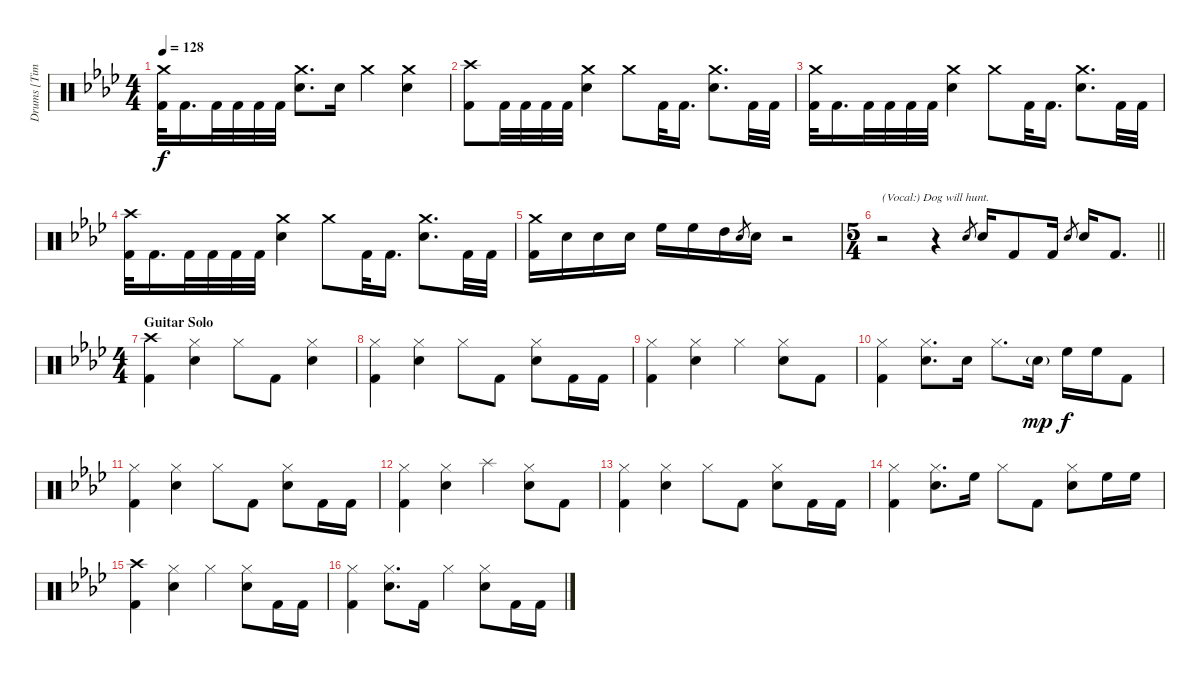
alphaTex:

\track ("Drums [Tim Alexander]" "Drums [Tim") {instrument percussion}
\staff {score}
\articulation defaults
\ts (4 4)
\tempo 128
\clef neutral
\ks ab
("Crash medium (hit)" "Kick (hit) 2").32{dy f} "Kick (hit) 2".16{d} "Kick (hit) 2".32 "Kick (hit) 2".32 "Kick (hit) 2".32 "Kick (hit) 2".32 ("Crash medium (hit)" "Electric Snare (hit)").8{d} "Electric Snare (hit)".16 "Crash medium (hit)".4 ("Crash medium (hit)" "Electric Snare (hit)").4 |
("Crash high (hit)" "Kick (hit) 2").8 "Kick (hit) 2".32 "Kick (hit) 2".32 "Kick (hit) 2".32 "Kick (hit) 2".32 ("Crash medium (hit)" "Electric Snare (hit)").4 "Crash medium (hit)".8 "Kick (hit) 2".32 "Kick (hit) 2".16{d} ("Crash medium (hit)" "Electric Snare (hit)").8{d} "Kick (hit) 2".32 "Kick (hit) 2".32 |
("Crash medium (hit)" "Kick (hit) 2").32 "Kick (hit) 2".16{d} "Kick (hit) 2".32 "Kick (hit) 2".32 "Kick (hit) 2".32 "Kick (hit) 2".32 ("Crash medium (hit)" "Electric Snare (hit)").4 "Crash medium (hit)".8 "Kick (hit) 2".32 "Kick (hit) 2".16{d} ("Crash medium (hit)" "Electric Snare (hit)").8{d} "Kick (hit) 2".32 "Kick (hit) 2".32 |
("Crash high (hit)" "Kick (hit) 2").32 "Kick (hit) 2".16{d} "Kick (hit) 2".32 "Kick (hit) 2".32 "Kick (hit) 2".32 "Kick (hit) 2".32 ("Crash medium (hit)" "Electric Snare (hit)").4 "Crash medium (hit)".8 "Kick (hit) 2".32 "Kick (hit) 2".16{d} ("Crash medium (hit)" "Electric Snare (hit)").8{d} "Kick (hit) 2".32 "Kick (hit) 2".32 |
("Crash medium (hit)" "Kick (hit) 2").16 "Electric Snare (hit)".16 "Electric Snare (hit)".16 "Electric Snare (hit)".16 "High Floor Tom (hit)".16 "High Floor Tom (hit)".16 "High Tom (hit)".16 "Electric Snare (hit)".8{gr} "Electric Snare (hit)".16 r.2 |
\ts (5 4)
\barLineRight lightlight
r.2{txt "(Vocal:) Dog will hunt."} r.4 "Electric Snare (hit)".8{gr} "Electric Snare (hit)".16 "Kick (hit) 2".8 "Kick (hit) 2".16 "Electric Snare (hit)".8{gr} "Electric Snare (hit)".16 "Kick (hit) 2".8{d} |
\ts (4 4)
\section ("" "Guitar Solo")
("Crash high (hit)" "Kick (hit) 2").4 ("Hi-Hat (closed)" "Electric Snare (hit)").4 "Hi-Hat (closed)".8 "Kick (hit) 2".8 ("Hi-Hat (closed)" "Electric Snare (hit)").4 |
("Hi-Hat (closed)" "Kick (hit) 2").4 ("Hi-Hat (closed)" "Electric Snare (hit)").4 "Hi-Hat (closed)".8 "Kick (hit) 2".8 ("Hi-Hat (closed)" "Electric Snare (hit)").8 "Kick (hit) 2".16 "Kick (hit) 2".16 |
("Hi-Hat (closed)" "Kick (hit) 2").4 ("Hi-Hat (closed)" "Electric Snare (hit)").4 "Hi-Hat (closed)".4 ("Hi-Hat (closed)" "Electric Snare (hit)").8 "Kick (hit) 2".8 |
("Hi-Hat (closed)" "Kick (hit) 2").4 ("Hi-Hat (closed)" "Electric Snare (hit)").8{d} "Electric Snare (hit)".16 "Hi-Hat (closed)".8{d} "Electric Snare (hit)"{g}.16{dy mp} "High Floor Tom (hit)".16{dy f} "High Floor Tom (hit)".16 "Kick (hit) 2".8 |
("Hi-Hat (closed)" "Kick (hit) 2").4 ("Hi-Hat (closed)" "Electric Snare (hit)").4 "Hi-Hat (closed)".8 "Kick (hit) 2".8 ("Hi-Hat (closed)" "Electric Snare (hit)").8 "Kick (hit) 2".16 "Kick (hit) 2".16 |
("Hi-Hat (closed)" "Kick (hit) 2").4 ("Hi-Hat (closed)" "Electric Snare (hit)").4 "Splash (hit)".4 ("Hi-Hat (closed)" "Electric Snare (hit)").8 "Kick (hit) 2".8 |
("Hi-Hat (closed)" "Kick (hit) 2").4 ("Hi-Hat (closed)" "Electric Snare (hit)").4 "Hi-Hat (closed)".8 "Kick (hit) 2".8 ("Hi-Hat (closed)" "Electric Snare (hit)").8 "Kick (hit) 2".16 "Kick (hit) 2".16 |
("Hi-Hat (closed)" "Kick (hit) 2").4 ("Hi-Hat (closed)" "Electric Snare (hit)").8{d} "High Floor Tom (hit)".16 "Hi-Hat (closed)".8 "Kick (hit) 2".8 ("Hi-Hat (closed)" "Electric Snare (hit)").8 "High Floor Tom (hit)".16 "High Floor Tom (hit)".16 |
("Crash high (hit)" "Kick (hit) 2").4 ("Hi-Hat (closed)" "Electric Snare (hit)").4 "Hi-Hat (closed)".4 ("Hi-Hat (closed)" "Electric Snare (hit)").8 "Kick (hit) 2".16 "Kick (hit) 2".16 |
("Hi-Hat (closed)" "Kick (hit) 2").4 ("Hi-Hat (closed)" "Electric Snare (hit)").8{d} "Kick (hit) 2".16 "Hi-Hat (closed)".4 ("Hi-Hat (closed)" "Electric Snare (hit)").8 "Kick (hit) 2".16 "Kick (hit) 2".16
